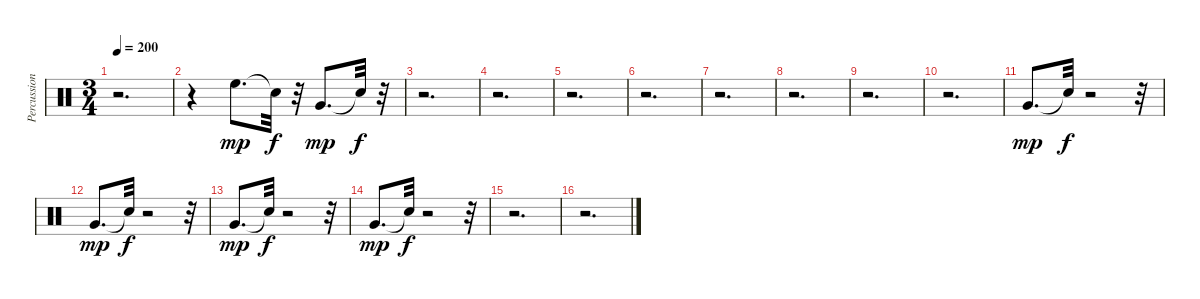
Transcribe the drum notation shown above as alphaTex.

\track ("Percussion." "Percussion") {instrument percussion}
\staff {score}
\articulation defaults
\ts (3 4)
\tempo 200
\clef neutral
\ks c
r.2{d dy f} |
r.4 "High Floor Tom (hit)".8{d dy mp} "Snare (hit)"{t}.32{dy f} r.32 "Very Low Tom (hit)".8{d dy mp} "Snare (hit)"{t}.32{dy f} r.32 |
r.2{d} |
r.2{d} |
r.2{d} |
r.2{d} |
r.2{d} |
r.2{d} |
r.2{d} |
r.2{d} |
"Very Low Tom (hit)".8{d dy mp} "Snare (hit)"{t}.32{dy f} r.2 r.32 |
"Very Low Tom (hit)".8{d dy mp} "Snare (hit)"{t}.32{dy f} r.2 r.32 |
"Very Low Tom (hit)".8{d dy mp} "Snare (hit)"{t}.32{dy f} r.2 r.32 |
"Very Low Tom (hit)".8{d dy mp} "Snare (hit)"{t}.32{dy f} r.2 r.32 |
r.2{d} |
r.2{d}
